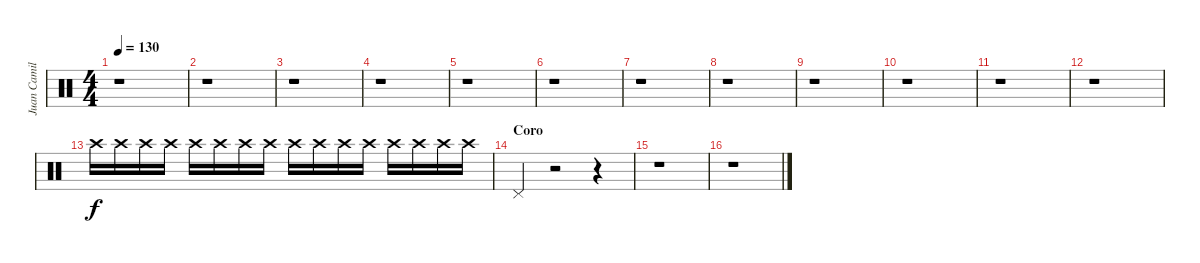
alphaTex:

\track ("Juan Camilo" "Juan Camil") {instrument percussion}
\staff {score}
\articulation defaults
\ts (4 4)
\tempo 130
\clef neutral
\ks c
r.1{dy f} |
r.1 |
r.1 |
r.1 |
r.1 |
r.1 |
r.1 |
r.1 |
r.1 |
r.1 |
r.1 |
r.1{volume 0} |
"Crash high (hit)".16{volume 10} "Crash high (hit)".16 "Crash high (hit)".16 "Crash high (hit)".16 "Crash high (hit)".16 "Crash high (hit)".16 "Crash high (hit)".16 "Crash high (hit)".16 "Crash high (hit)".16 "Crash high (hit)".16 "Crash high (hit)".16 "Crash high (hit)".16 "Crash high (hit)".16 "Crash high (hit)".16 "Crash high (hit)".16 "Crash high (hit)".16 |
\section ("" "Coro")
"Pedal Hi-Hat (hit)".4 r.2 r.4 |
r.1{volume 13} |
r.1
